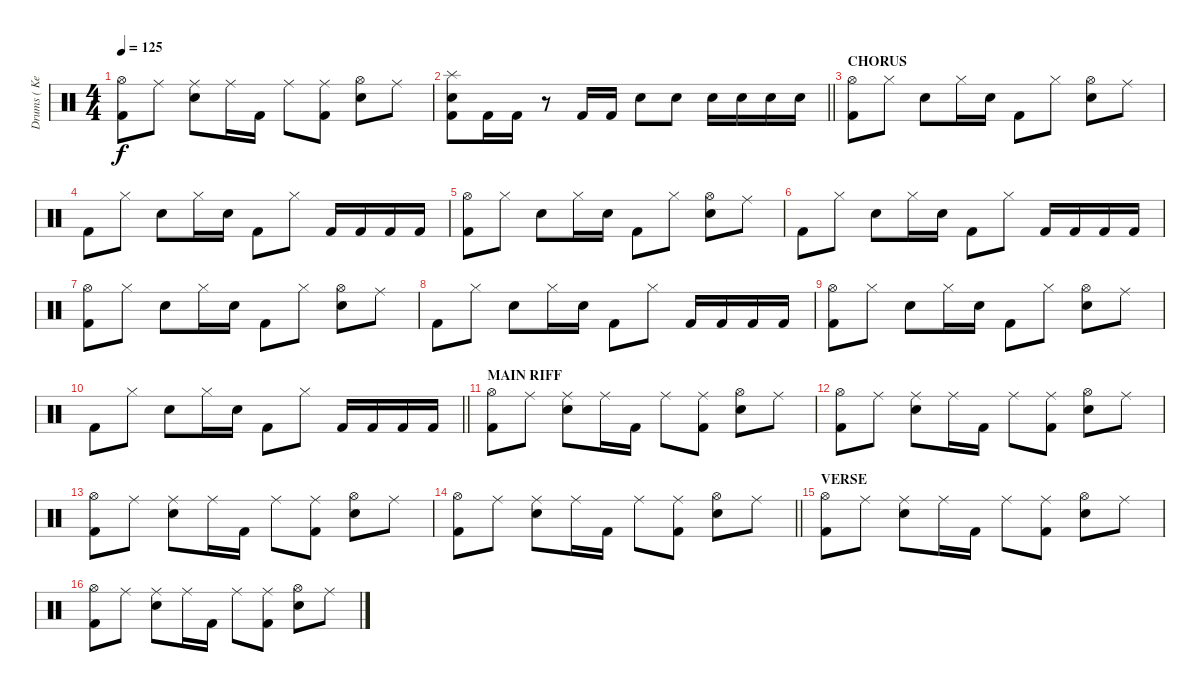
\track ("Drums ( Ken Jay )" "Drums ( Ke") {instrument percussion}
\staff {score}
\articulation defaults
\ts (4 4)
\tempo 125
\clef neutral
\ks c
("Hi-Hat (open)" "Kick (hit) 2").8{dy f} "Ride (middle)".8 ("Ride (middle)" "Snare (hit) 2").8 "Ride (middle)".16 "Kick (hit) 2".16 "Ride (middle)".8 ("Ride (middle)" "Kick (hit) 2").8 ("Hi-Hat (open)" "Snare (hit) 2").8 "Ride (middle)".8 |
\barLineRight lightlight
("Splash (hit)" "Snare (hit) 2" "Kick (hit) 2").8 "Kick (hit) 2".16 "Kick (hit) 2".16 r.8 "Kick (hit) 2".16 "Kick (hit) 2".16 "Snare (hit) 2".8 "Snare (hit) 2".8 "Snare (hit) 2".16 "Snare (hit) 2".16 "Snare (hit) 2".16 "Snare (hit) 2".16 |
\section ("" "CHORUS")
("Hi-Hat (open)" "Kick (hit) 2").8 "Hi-Hat (closed)".8 "Snare (hit) 2".8 "Hi-Hat (closed)".16 "Snare (hit) 2".16 "Kick (hit) 2".8 "Hi-Hat (closed)".8 ("Hi-Hat (open)" "Snare (hit) 2").8 "Ride (middle)".8 |
"Kick (hit) 2".8 "Hi-Hat (closed)".8 "Snare (hit) 2".8 "Hi-Hat (closed)".16 "Snare (hit) 2".16 "Kick (hit) 2".8 "Hi-Hat (closed)".8 "Kick (hit) 2".16 "Kick (hit) 2".16 "Kick (hit) 2".16 "Kick (hit) 2".16 |
("Hi-Hat (open)" "Kick (hit) 2").8 "Hi-Hat (closed)".8 "Snare (hit) 2".8 "Hi-Hat (closed)".16 "Snare (hit) 2".16 "Kick (hit) 2".8 "Hi-Hat (closed)".8 ("Hi-Hat (open)" "Snare (hit) 2").8 "Ride (middle)".8 |
"Kick (hit) 2".8 "Hi-Hat (closed)".8 "Snare (hit) 2".8 "Hi-Hat (closed)".16 "Snare (hit) 2".16 "Kick (hit) 2".8 "Hi-Hat (closed)".8 "Kick (hit) 2".16 "Kick (hit) 2".16 "Kick (hit) 2".16 "Kick (hit) 2".16 |
("Hi-Hat (open)" "Kick (hit) 2").8 "Hi-Hat (closed)".8 "Snare (hit) 2".8 "Hi-Hat (closed)".16 "Snare (hit) 2".16 "Kick (hit) 2".8 "Hi-Hat (closed)".8 ("Hi-Hat (open)" "Snare (hit) 2").8 "Ride (middle)".8 |
"Kick (hit) 2".8 "Hi-Hat (closed)".8 "Snare (hit) 2".8 "Hi-Hat (closed)".16 "Snare (hit) 2".16 "Kick (hit) 2".8 "Hi-Hat (closed)".8 "Kick (hit) 2".16 "Kick (hit) 2".16 "Kick (hit) 2".16 "Kick (hit) 2".16 |
("Hi-Hat (open)" "Kick (hit) 2").8 "Hi-Hat (closed)".8 "Snare (hit) 2".8 "Hi-Hat (closed)".16 "Snare (hit) 2".16 "Kick (hit) 2".8 "Hi-Hat (closed)".8 ("Hi-Hat (open)" "Snare (hit) 2").8 "Ride (middle)".8 |
\barLineRight lightlight "Kick (hit) 2".8 "Hi-Hat (closed)".8 "Snare (hit) 2".8 "Hi-Hat (closed)".16 "Snare (hit) 2".16 "Kick (hit) 2".8 "Hi-Hat (closed)".8 "Kick (hit) 2".16 "Kick (hit) 2".16 "Kick (hit) 2".16 "Kick (hit) 2".16
|
\section ("" "MAIN RIFF")
("Hi-Hat (open)" "Kick (hit) 2").8 "Ride (middle)".8 ("Ride (middle)" "Snare (hit) 2").8 "Ride (middle)".16 "Kick (hit) 2".16 "Ride (middle)".8 ("Ride (middle)" "Kick (hit) 2").8 ("Hi-Hat (open)" "Snare (hit) 2").8 "Ride (middle)".8 |
("Hi-Hat (open)" "Kick (hit) 2").8 "Ride (middle)".8 ("Ride (middle)" "Snare (hit) 2").8 "Ride (middle)".16 "Kick (hit) 2".16 "Ride (middle)".8 ("Ride (middle)" "Kick (hit) 2").8 ("Hi-Hat (open)" "Snare (hit) 2").8 "Ride (middle)".8 |
("Hi-Hat (open)" "Kick (hit) 2").8 "Ride (middle)".8 ("Ride (middle)" "Snare (hit) 2").8 "Ride (middle)".16 "Kick (hit) 2".16 "Ride (middle)".8 ("Ride (middle)" "Kick (hit) 2").8 ("Hi-Hat (open)" "Snare (hit) 2").8 "Ride (middle)".8 |
\barLineRight lightlight
("Hi-Hat (open)" "Kick (hit) 2").8 "Ride (middle)".8 ("Ride (middle)" "Snare (hit) 2").8 "Ride (middle)".16 "Kick (hit) 2".16 "Ride (middle)".8 ("Ride (middle)" "Kick (hit) 2").8 ("Hi-Hat (open)" "Snare (hit) 2").8 "Ride (middle)".8 |
\section ("" "VERSE")
("Hi-Hat (open)" "Kick (hit) 2").8 "Ride (middle)".8 ("Ride (middle)" "Snare (hit) 2").8 "Ride (middle)".16 "Kick (hit) 2".16 "Ride (middle)".8 ("Ride (middle)" "Kick (hit) 2").8 ("Hi-Hat (open)" "Snare (hit) 2").8 "Ride (middle)".8 |
("Hi-Hat (open)" "Kick (hit) 2").8 "Ride (middle)".8 ("Ride (middle)" "Snare (hit) 2").8 "Ride (middle)".16 "Kick (hit) 2".16 "Ride (middle)".8 ("Ride (middle)" "Kick (hit) 2").8 ("Hi-Hat (open)" "Snare (hit) 2").8 "Ride (middle)".8
